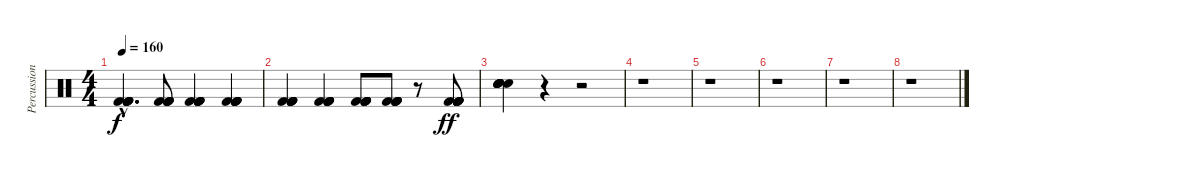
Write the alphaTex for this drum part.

\track ("Percussion" "Percussion") {instrument percussion}
\staff {score}
\articulation defaults
\ts (4 4)
\tempo 160
\clef neutral
\ks c
("Kick (hit) 2"{hac} "Kick (hit) 2"{hac} "Kick (hit) 2"{hac} "Kick (hit) 2"{hac} "Kick (hit) 2"{hac}).4{d dy f} ("Kick (hit) 2" "Kick (hit) 2" "Kick (hit) 2" "Kick (hit) 2" "Kick (hit) 2").8 ("Kick (hit) 2" "Kick (hit) 2" "Kick (hit) 2" "Kick (hit) 2" "Kick (hit) 2").4 ("Kick (hit) 2" "Kick (hit) 2" "Kick (hit) 2" "Kick (hit) 2" "Kick (hit) 2").4 |
("Kick (hit) 2" "Kick (hit) 2" "Kick (hit) 2" "Kick (hit) 2" "Kick (hit) 2").4 ("Kick (hit) 2" "Kick (hit) 2" "Kick (hit) 2" "Kick (hit) 2" "Kick (hit) 2").4 ("Kick (hit) 2" "Kick (hit) 2" "Kick (hit) 2" "Kick (hit) 2" "Kick (hit) 2").8 ("Kick (hit) 2" "Kick (hit) 2" "Kick (hit) 2" "Kick (hit) 2" "Kick (hit) 2").8 r.8 ("Kick (hit) 2" "Kick (hit) 2" "Kick (hit) 2" "Kick (hit) 2" "Kick (hit) 2" "Kick (hit) 2").8{dy ff} |
("Snare (hit) 2" "Snare (hit) 2" "Snare (hit) 2" "Snare (hit) 2" "Snare (hit) 2" "Snare (hit) 2").4 r.4 r.2 |
r.1 |
r.1 |
r.1 |
r.1 |
r.1
